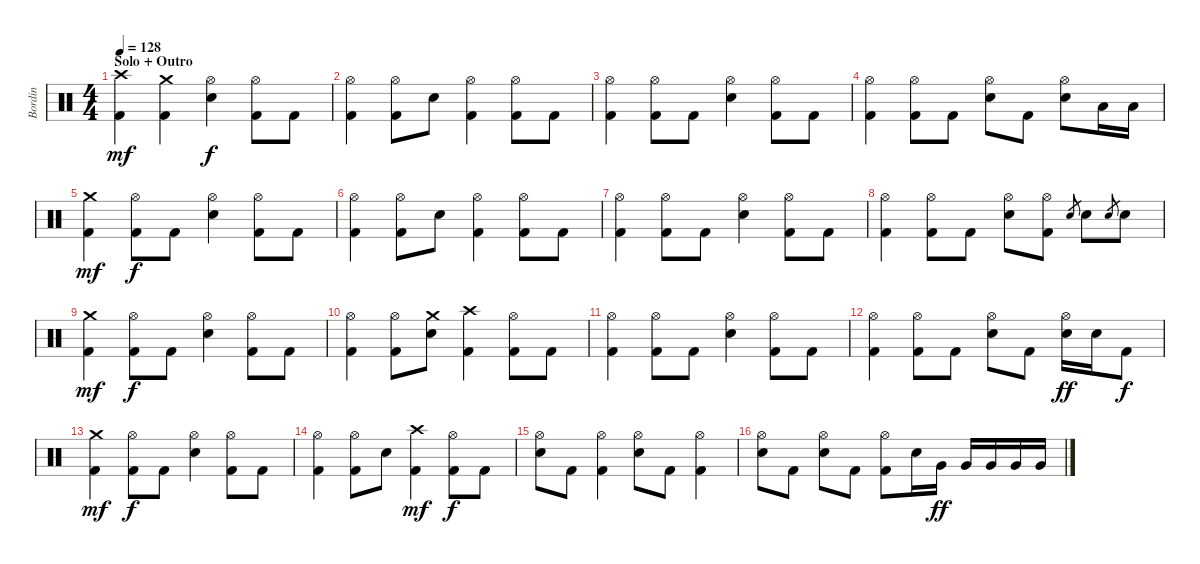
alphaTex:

\track ("Bordin" "Bordin") {instrument percussion}
\staff {score}
\articulation defaults
\ts (4 4)
\section ("" "Solo + Outro")
\tempo 128
\clef neutral
\ks c
("Crash high (hit)" "Kick (hit) 2").4{dy mf} ("Crash medium (hit)" "Kick (hit) 2").4 ("Hi-Hat (open)" "Electric Snare (hit)").4{dy f} ("Hi-Hat (open)" "Kick (hit) 2").8 "Kick (hit) 2".8 |
("Hi-Hat (open)" "Kick (hit) 2").4 ("Hi-Hat (open)" "Kick (hit) 2").8 "Electric Snare (hit)".8 ("Hi-Hat (open)" "Kick (hit) 2").4 ("Hi-Hat (open)" "Kick (hit) 2").8 "Kick (hit) 2".8 |
("Hi-Hat (open)" "Kick (hit) 2").4 ("Hi-Hat (open)" "Kick (hit) 2").8 "Kick (hit) 2".8 ("Hi-Hat (open)" "Electric Snare (hit)").4 ("Hi-Hat (open)" "Kick (hit) 2").8 "Kick (hit) 2".8 |
("Hi-Hat (open)" "Kick (hit) 2").4 ("Hi-Hat (open)" "Kick (hit) 2").8 "Kick (hit) 2".8 ("Hi-Hat (open)" "Electric Snare (hit)").8 "Kick (hit) 2".8 ("Hi-Hat (open)" "Electric Snare (hit)").8 "Low Tom (hit)".16 "Low Tom (hit)".16 |
("Crash medium (hit)" "Kick (hit) 2").4{dy mf} ("Hi-Hat (open)" "Kick (hit) 2").8{dy f} "Kick (hit) 2".8 ("Hi-Hat (open)" "Electric Snare (hit)").4 ("Hi-Hat (open)" "Kick (hit) 2").8 "Kick (hit) 2".8 |
("Hi-Hat (open)" "Kick (hit) 2").4 ("Hi-Hat (open)" "Kick (hit) 2").8 "Electric Snare (hit)".8 ("Hi-Hat (open)" "Kick (hit) 2").4 ("Hi-Hat (open)" "Kick (hit) 2").8 "Kick (hit) 2".8 |
("Hi-Hat (open)" "Kick (hit) 2").4 ("Hi-Hat (open)" "Kick (hit) 2").8 "Kick (hit) 2".8 ("Hi-Hat (open)" "Electric Snare (hit)").4 ("Hi-Hat (open)" "Kick (hit) 2").8 "Kick (hit) 2".8 |
("Hi-Hat (open)" "Kick (hit) 2").4 ("Hi-Hat (open)" "Kick (hit) 2").8 "Kick (hit) 2".8 ("Hi-Hat (open)" "Electric Snare (hit)").8 ("Hi-Hat (open)" "Kick (hit) 2").8 "Electric Snare (hit)".8{gr} "Electric Snare (hit)".8 "Electric Snare (hit)".8{gr} "Electric Snare (hit)".8 |
("Crash medium (hit)" "Kick (hit) 2").4{dy mf} ("Hi-Hat (open)" "Kick (hit) 2").8{dy f} "Kick (hit) 2".8 ("Hi-Hat (open)" "Electric Snare (hit)").4 ("Hi-Hat (open)" "Kick (hit) 2").8 "Kick (hit) 2".8 |
("Hi-Hat (open)" "Kick (hit) 2").4 ("Hi-Hat (open)" "Kick (hit) 2").8 ("Crash medium (hit)" "Electric Snare (hit)").8 ("Crash high (hit)" "Kick (hit) 2").4 ("Hi-Hat (open)" "Kick (hit) 2").8 "Kick (hit) 2".8 |
("Hi-Hat (open)" "Kick (hit) 2").4 ("Hi-Hat (open)" "Kick (hit) 2").8 "Kick (hit) 2".8 ("Hi-Hat (open)" "Electric Snare (hit)").4 ("Hi-Hat (open)" "Kick (hit) 2").8 "Kick (hit) 2".8 |
("Hi-Hat (open)" "Kick (hit) 2").4 ("Hi-Hat (open)" "Kick (hit) 2").8 "Kick (hit) 2".8 ("Hi-Hat (open)" "Electric Snare (hit)").8 "Kick (hit) 2".8 ("Hi-Hat (open)" "Electric Snare (hit)").16{dy ff} "Electric Snare (hit)".16 "Kick (hit) 2".8{dy f} |
("Crash medium (hit)" "Kick (hit) 2").4{dy mf} ("Hi-Hat (open)" "Kick (hit) 2").8{dy f} "Kick (hit) 2".8 ("Hi-Hat (open)" "Electric Snare (hit)").4 ("Hi-Hat (open)" "Kick (hit) 2").8 "Kick (hit) 2".8 |
("Hi-Hat (open)" "Kick (hit) 2").4 ("Hi-Hat (open)" "Kick (hit) 2").8 "Electric Snare (hit)".8 ("Crash high (hit)" "Kick (hit) 2").4{dy mf} ("Hi-Hat (open)" "Kick (hit) 2").8{dy f} "Kick (hit) 2".8 |
("Hi-Hat (open)" "Electric Snare (hit)").8 "Kick (hit) 2".8 ("Hi-Hat (open)" "Kick (hit) 2").4 ("Hi-Hat (open)" "Electric Snare (hit)").8 "Kick (hit) 2".8 ("Hi-Hat (open)" "Kick (hit) 2").4 |
("Hi-Hat (open)" "Electric Snare (hit)").8 "Kick (hit) 2".8 ("Hi-Hat (open)" "Electric Snare (hit)").8 "Kick (hit) 2".8 ("Hi-Hat (open)" "Kick (hit) 2").8 "Electric Snare (hit)".16 "Very Low Tom (hit)".16{dy ff} "Very Low Tom (hit)".16 "Very Low Tom (hit)".16 "Very Low Tom (hit)".16 "Very Low Tom (hit)".16
